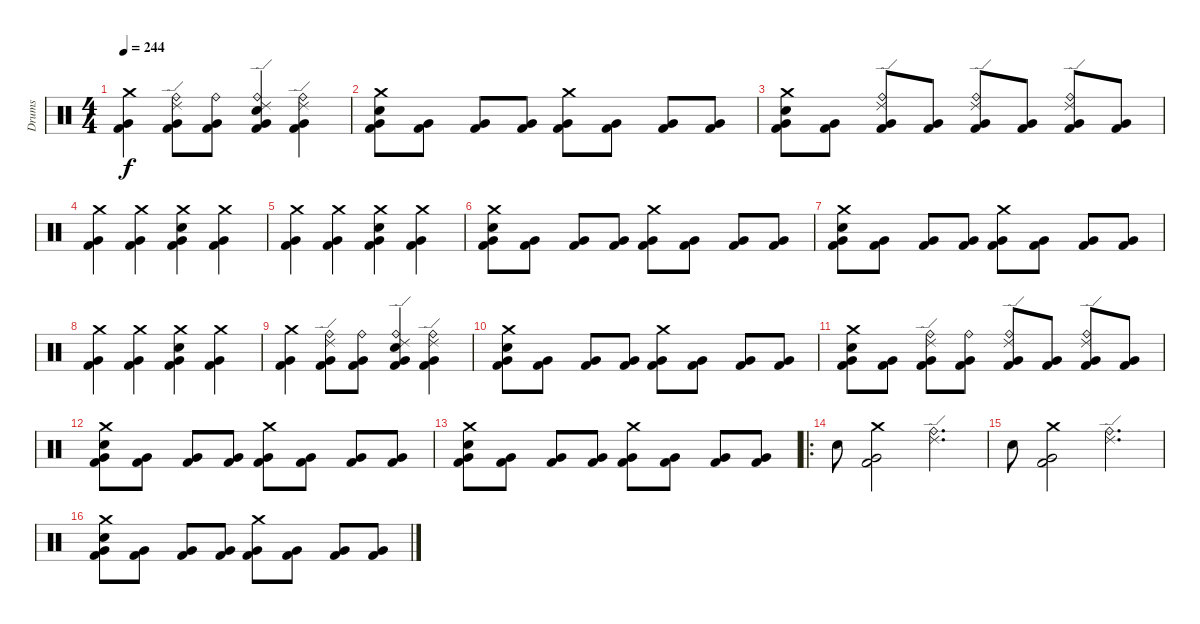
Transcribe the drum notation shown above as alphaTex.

\track ("Drums" "Drums") {instrument percussion}
\staff {score}
\articulation defaults
\ts (4 4)
\tempo 244
\clef neutral
\ks c
("Crash medium (hit)" "Very Low Tom (hit)" "Kick (hit) 2").4{dy f} ("Ride (bell)" "Ride (edge) 2" "Very Low Tom (hit)" "Kick (hit) 2").8 ("Ride (bell)" "Very Low Tom (hit)" "Kick (hit) 2").8 ("Ride (bell)" "Ride (edge) 2" "Snare (hit) 2" "Very Low Tom (hit)" "Kick (hit) 2").4 ("Ride (bell)" "Ride (edge) 2" "Very Low Tom (hit)" "Kick (hit) 2").4 |
("Crash medium (hit)" "Snare (hit) 2" "Very Low Tom (hit)" "Kick (hit) 2").8 ("Very Low Tom (hit)" "Kick (hit) 2").8 ("Very Low Tom (hit)" "Kick (hit) 2").8 ("Very Low Tom (hit)" "Kick (hit) 2").8 ("Crash medium (hit)" "Very Low Tom (hit)" "Kick (hit) 2").8 ("Very Low Tom (hit)" "Kick (hit) 2").8 ("Very Low Tom (hit)" "Kick (hit) 2").8 ("Very Low Tom (hit)" "Kick (hit) 2").8 |
("Crash medium (hit)" "Snare (hit) 2" "Very Low Tom (hit)" "Kick (hit) 2").8 ("Very Low Tom (hit)" "Kick (hit) 2").8 ("Ride (bell)" "Ride (edge) 2" "Very Low Tom (hit)" "Kick (hit) 2").8 ("Very Low Tom (hit)" "Kick (hit) 2").8 ("Ride (bell)" "Ride (edge) 2" "Very Low Tom (hit)" "Kick (hit) 2").8 ("Very Low Tom (hit)" "Kick (hit) 2").8 ("Ride (bell)" "Ride (edge) 2" "Very Low Tom (hit)" "Kick (hit) 2").8 ("Very Low Tom (hit)" "Kick (hit) 2").8 |
("Crash medium (hit)" "Very Low Tom (hit)" "Kick (hit) 2").4 ("Crash medium (hit)" "Very Low Tom (hit)" "Kick (hit) 2").4 ("Crash medium (hit)" "Snare (hit) 2" "Very Low Tom (hit)" "Kick (hit) 2").4 ("Crash medium (hit)" "Very Low Tom (hit)" "Kick (hit) 2").4 |
("Crash medium (hit)" "Very Low Tom (hit)" "Kick (hit) 2").4 ("Crash medium (hit)" "Very Low Tom (hit)" "Kick (hit) 2").4 ("Crash medium (hit)" "Snare (hit) 2" "Very Low Tom (hit)" "Kick (hit) 2").4 ("Crash medium (hit)" "Very Low Tom (hit)" "Kick (hit) 2").4 |
("Crash medium (hit)" "Snare (hit) 2" "Very Low Tom (hit)" "Kick (hit) 2").8 ("Very Low Tom (hit)" "Kick (hit) 2").8 ("Very Low Tom (hit)" "Kick (hit) 2").8 ("Very Low Tom (hit)" "Kick (hit) 2").8 ("Crash medium (hit)" "Very Low Tom (hit)" "Kick (hit) 2").8 ("Very Low Tom (hit)" "Kick (hit) 2").8 ("Very Low Tom (hit)" "Kick (hit) 2").8 ("Very Low Tom (hit)" "Kick (hit) 2").8 |
("Crash medium (hit)" "Snare (hit) 2" "Very Low Tom (hit)" "Kick (hit) 2").8 ("Very Low Tom (hit)" "Kick (hit) 2").8 ("Very Low Tom (hit)" "Kick (hit) 2").8 ("Very Low Tom (hit)" "Kick (hit) 2").8 ("Crash medium (hit)" "Very Low Tom (hit)" "Kick (hit) 2").8 ("Very Low Tom (hit)" "Kick (hit) 2").8 ("Very Low Tom (hit)" "Kick (hit) 2").8 ("Very Low Tom (hit)" "Kick (hit) 2").8 |
("Crash medium (hit)" "Very Low Tom (hit)" "Kick (hit) 2").4 ("Crash medium (hit)" "Very Low Tom (hit)" "Kick (hit) 2").4 ("Crash medium (hit)" "Snare (hit) 2" "Very Low Tom (hit)" "Kick (hit) 2").4 ("Crash medium (hit)" "Very Low Tom (hit)" "Kick (hit) 2").4 |
("Crash medium (hit)" "Very Low Tom (hit)" "Kick (hit) 2").4 ("Ride (bell)" "Ride (edge) 2" "Very Low Tom (hit)" "Kick (hit) 2").8 ("Ride (bell)" "Very Low Tom (hit)" "Kick (hit) 2").8 ("Ride (bell)" "Ride (edge) 2" "Snare (hit) 2" "Very Low Tom (hit)" "Kick (hit) 2").4 ("Ride (bell)" "Ride (edge) 2" "Very Low Tom (hit)" "Kick (hit) 2").4 |
("Crash medium (hit)" "Snare (hit) 2" "Very Low Tom (hit)" "Kick (hit) 2").8 ("Very Low Tom (hit)" "Kick (hit) 2").8 ("Very Low Tom (hit)" "Kick (hit) 2").8 ("Very Low Tom (hit)" "Kick (hit) 2").8 ("Crash medium (hit)" "Very Low Tom (hit)" "Kick (hit) 2").8 ("Very Low Tom (hit)" "Kick (hit) 2").8 ("Very Low Tom (hit)" "Kick (hit) 2").8 ("Very Low Tom (hit)" "Kick (hit) 2").8 |
("Crash medium (hit)" "Snare (hit) 2" "Very Low Tom (hit)" "Kick (hit) 2").8 ("Very Low Tom (hit)" "Kick (hit) 2").8 ("Ride (bell)" "Ride (edge) 2" "Very Low Tom (hit)" "Kick (hit) 2").8 ("Ride (bell)" "Very Low Tom (hit)" "Kick (hit) 2").8 ("Ride (bell)" "Ride (edge) 2" "Very Low Tom (hit)" "Kick (hit) 2").8 ("Very Low Tom (hit)" "Kick (hit) 2").8 ("Ride (bell)" "Ride (edge) 2" "Very Low Tom (hit)" "Kick (hit) 2").8 ("Very Low Tom (hit)" "Kick (hit) 2").8 |
("Crash medium (hit)" "Snare (hit) 2" "Very Low Tom (hit)" "Kick (hit) 2").8 ("Very Low Tom (hit)" "Kick (hit) 2").8 ("Very Low Tom (hit)" "Kick (hit) 2").8 ("Very Low Tom (hit)" "Kick (hit) 2").8 ("Crash medium (hit)" "Very Low Tom (hit)" "Kick (hit) 2").8 ("Very Low Tom (hit)" "Kick (hit) 2").8 ("Very Low Tom (hit)" "Kick (hit) 2").8 ("Very Low Tom (hit)" "Kick (hit) 2").8 |
("Crash medium (hit)" "Snare (hit) 2" "Very Low Tom (hit)" "Kick (hit) 2").8 ("Very Low Tom (hit)" "Kick (hit) 2").8 ("Very Low Tom (hit)" "Kick (hit) 2").8 ("Very Low Tom (hit)" "Kick (hit) 2").8 ("Crash medium (hit)" "Very Low Tom (hit)" "Kick (hit) 2").8 ("Very Low Tom (hit)" "Kick (hit) 2").8 ("Very Low Tom (hit)" "Kick (hit) 2").8 ("Very Low Tom (hit)" "Kick (hit) 2").8 |
\ro "Snare (hit) 2".8
("Crash medium (hit)" "Very Low Tom (hit)" "Kick (hit) 2").2 ("Ride (bell)" "Ride (edge) 2").4{d} |
"Snare (hit) 2".8 ("Crash medium (hit)" "Very Low Tom (hit)" "Kick (hit) 2").2 ("Ride (bell)" "Ride (edge) 2").4{d} |
("Crash medium (hit)" "Snare (hit) 2" "Very Low Tom (hit)" "Kick (hit) 2").8 ("Very Low Tom (hit)" "Kick (hit) 2").8 ("Very Low Tom (hit)" "Kick (hit) 2").8 ("Very Low Tom (hit)" "Kick (hit) 2").8 ("Crash medium (hit)" "Very Low Tom (hit)" "Kick (hit) 2").8 ("Very Low Tom (hit)" "Kick (hit) 2").8 ("Very Low Tom (hit)" "Kick (hit) 2").8 ("Very Low Tom (hit)" "Kick (hit) 2").8
